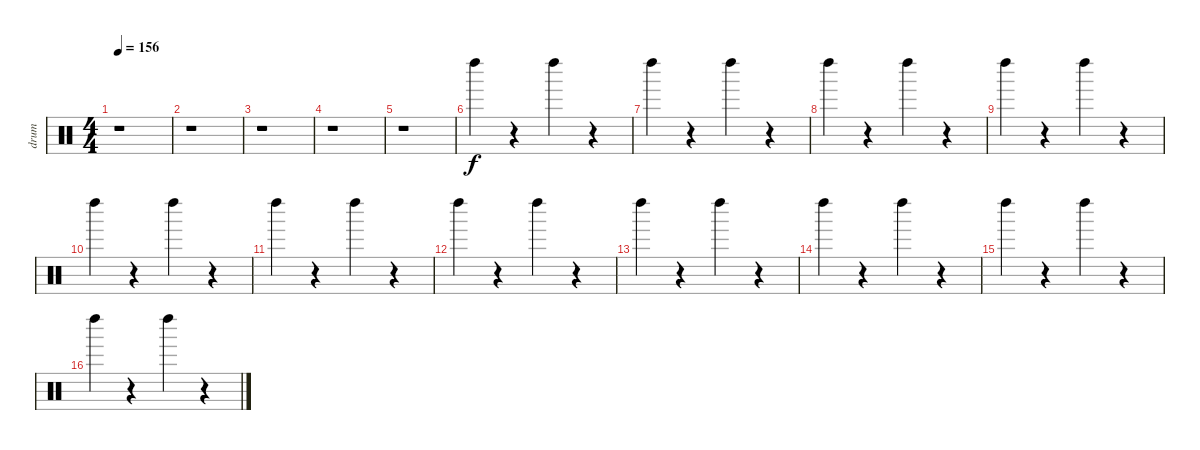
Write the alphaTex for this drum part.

\track ("drum" "drum") {instrument percussion}
\staff {score}
\articulation defaults
\ts (4 4)
\tempo 156
\clef neutral
\ks c
r.1{dy f} |
r.1 |
r.1 |
r.1 |
r.1 |
"Left Maraca (hit)".4 r.4 "Left Maraca (hit)".4 r.4 |
"Left Maraca (hit)".4 r.4 "Left Maraca (hit)".4 r.4 |
"Left Maraca (hit)".4 r.4 "Left Maraca (hit)".4 r.4 |
"Left Maraca (hit)".4 r.4 "Left Maraca (hit)".4 r.4 |
"Left Maraca (hit)".4 r.4 "Left Maraca (hit)".4 r.4 |
"Left Maraca (hit)".4 r.4 "Left Maraca (hit)".4 r.4 |
"Left Maraca (hit)".4 r.4 "Left Maraca (hit)".4 r.4 |
"Left Maraca (hit)".4 r.4 "Left Maraca (hit)".4 r.4 |
"Left Maraca (hit)".4 r.4 "Left Maraca (hit)".4 r.4 |
"Left Maraca (hit)".4 r.4 "Left Maraca (hit)".4 r.4 |
"Left Maraca (hit)".4 r.4 "Left Maraca (hit)".4 r.4
